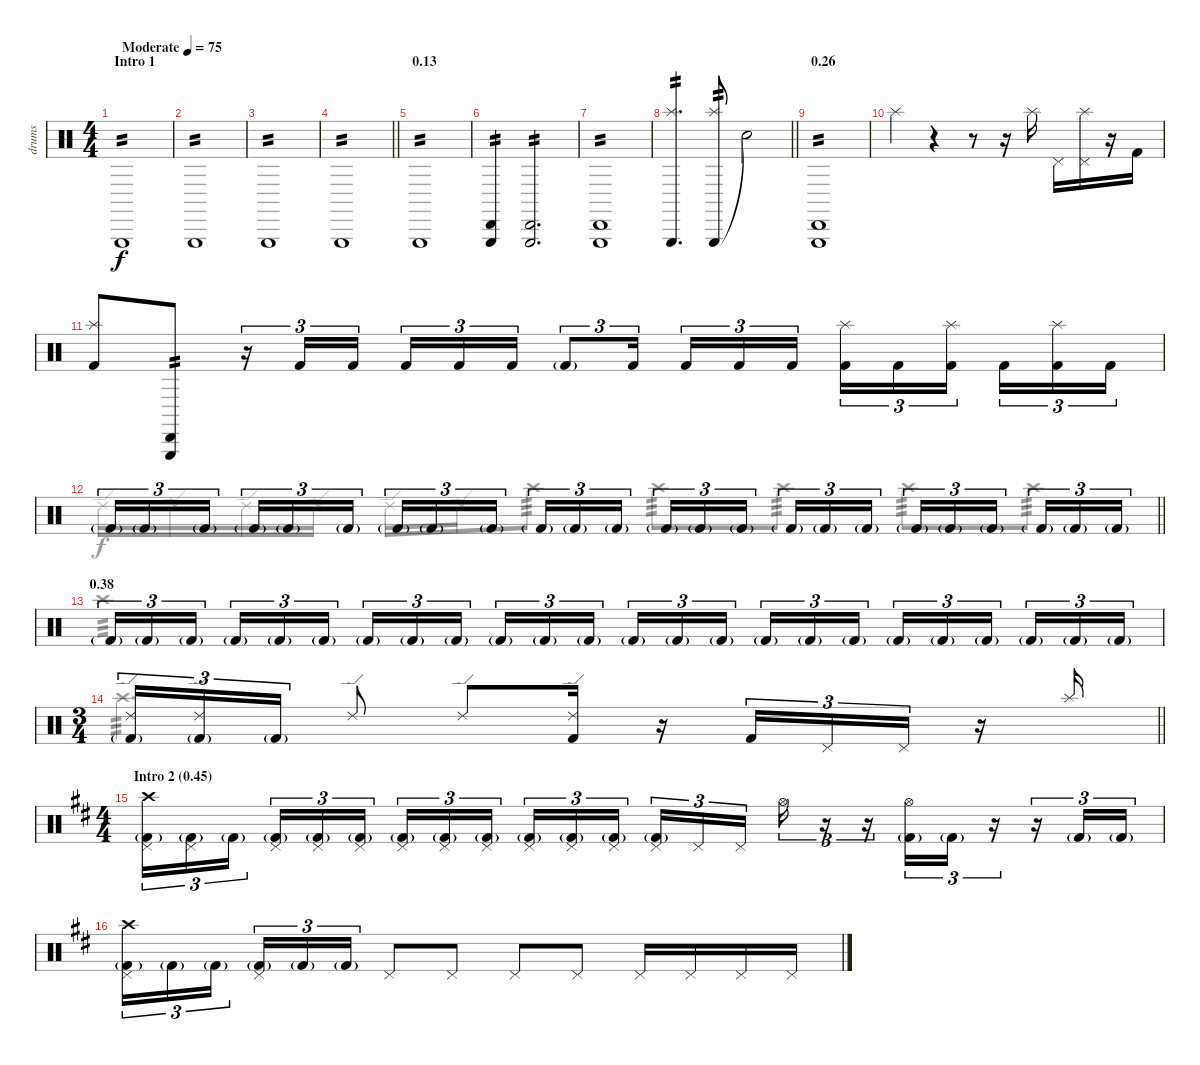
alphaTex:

\track ("drums" "drums") {instrument percussion}
\staff {score}
\articulation defaults
\voice
\ts (4 4)
\section ("" "Intro 1")
\tempo (75 "Moderate")
\clef neutral
\ks c "Triangle (hit)".1{tp 2 dy f}
|
"Triangle (hit)".1{tp 2} |
"Triangle (hit)".1{tp 2} |
\barLineRight lightlight "Triangle (hit)".1{tp 2}
|
\section ("" "0.13")
"Triangle (hit)".1{tp 2} |
("Cabasa (hit)" "Triangle (hit)").4{tp 2} ("Cabasa (hit)" "Triangle (hit)").2{d tp 2} |
("Cabasa (hit)" "Triangle (hit)").1{tp 2} |
\barLineRight lightlight
("Triangle (hit)" "Splash (hit)").4{d tp 2} ("Triangle (hit)" "Splash (hit)").8{tp 2} "Snare (hit)"{t}.2 |
\section ("" "0.26")
("Cabasa (hit)" "Triangle (hit)").1{tp 2} |
"Splash (hit)".4 r.4 r.8 r.16 "Splash (hit)".16 "Pedal Hi-Hat (hit)".16 ("Pedal Hi-Hat (hit)" "Splash (hit)").16 r.16 "Kick (hit) 2".16 |
("Splash (hit)" "Kick (hit) 2").8 ("Cabasa (hit)" "Triangle (hit)").8{tp 2} r.16{tu (3 2)} "Kick (hit) 2".16{tu (3 2)} "Kick (hit) 2".16{tu (3 2) beam splitsecondary} "Kick (hit) 2".16{tu (3 2)} "Kick (hit) 2".16{tu (3 2)} "Kick (hit) 2".16{tu (3 2)} "Kick (hit) 2"{g}.8{tu (3 2)} "Kick (hit) 2".16{tu (3 2) beam splitsecondary} "Kick (hit) 2".16{tu (3 2)} "Kick (hit) 2".16{tu (3 2)} "Kick (hit) 2".16{tu (3 2)} ("Splash (hit)" "Kick (hit) 2").16{tu (3 2)} "Kick (hit) 2".16{tu (3 2)} ("Splash (hit)" "Kick (hit) 2").16{tu (3 2) beam splitsecondary} "Kick (hit) 2".16{tu (3 2)} ("Splash (hit)" "Kick (hit) 2").16{tu (3 2)} "Kick (hit) 2".16{tu (3 2)} |
\barLineRight lightlight "Kick (hit) 2"{g}.16{tu (3 2)} "Kick (hit) 2"{g}.16{tu (3 2)} "Kick (hit) 2"{g}.16{tu (3 2) beam splitsecondary} "Kick (hit) 2"{g}.16{tu (3 2)} "Kick (hit) 2"{g}.16{tu (3 2)} "Kick (hit) 2"{g}.16{tu (3 2)} "Kick (hit) 2"{g}.16{tu (3 2)} "Kick (hit) 2"{g}.16{tu (3 2)} "Kick (hit) 2"{g}.16{tu (3 2) beam splitsecondary} "Kick (hit) 2"{g}.16{tu (3 2)} "Kick (hit) 2"{g}.16{tu (3 2)} "Kick (hit) 2"{g}.16{tu (3 2)} "Kick (hit) 2"{g}.16{tu (3 2)} "Kick (hit) 2"{g}.16{tu (3 2)} "Kick (hit) 2"{g}.16{tu (3 2) beam splitsecondary} "Kick (hit) 2"{g}.16{tu (3 2)} "Kick (hit) 2"{g}.16{tu (3 2)} "Kick (hit) 2"{g}.16{tu (3 2)} "Kick (hit) 2"{g}.16{tu (3 2)} "Kick (hit) 2"{g}.16{tu (3 2)} "Kick (hit) 2"{g}.16{tu (3 2) beam splitsecondary} "Kick (hit) 2"{g}.16{tu (3 2)} "Kick (hit) 2"{g}.16{tu (3 2)} "Kick (hit) 2"{g}.16{tu (3 2)}
|
\section ("" "0.38")
"Kick (hit) 2"{g}.16{tu (3 2)} "Kick (hit) 2"{g}.16{tu (3 2)} "Kick (hit) 2"{g}.16{tu (3 2) beam splitsecondary} "Kick (hit) 2"{g}.16{tu (3 2)} "Kick (hit) 2"{g}.16{tu (3 2)} "Kick (hit) 2"{g}.16{tu (3 2)} "Kick (hit) 2"{g}.16{tu (3 2)} "Kick (hit) 2"{g}.16{tu (3 2)} "Kick (hit) 2"{g}.16{tu (3 2) beam splitsecondary} "Kick (hit) 2"{g}.16{tu (3 2)} "Kick (hit) 2"{g}.16{tu (3 2)} "Kick (hit) 2"{g}.16{tu (3 2)} "Kick (hit) 2"{g}.16{tu (3 2)} "Kick (hit) 2"{g}.16{tu (3 2)} "Kick (hit) 2"{g}.16{tu (3 2) beam splitsecondary} "Kick (hit) 2"{g}.16{tu (3 2)} "Kick (hit) 2"{g}.16{tu (3 2)} "Kick (hit) 2"{g}.16{tu (3 2)} "Kick (hit) 2"{g}.16{tu (3 2)} "Kick (hit) 2"{g}.16{tu (3 2)} "Kick (hit) 2"{g}.16{tu (3 2) beam splitsecondary} "Kick (hit) 2"{g}.16{tu (3 2)} "Kick (hit) 2"{g}.16{tu (3 2)} "Kick (hit) 2"{g}.16{tu (3 2)} |
\ts (3 4)
\barLineRight lightlight
("Ride (edge) 2" "Kick (hit) 2"{g}).16{tu (3 2)} ("Ride (edge) 2" "Kick (hit) 2"{g}).16{tu (3 2)} "Kick (hit) 2"{g}.16{tu (3 2)} "Ride (edge) 2".8 "Ride (edge) 2".8 ("Ride (edge) 2" "Kick (hit) 2").16 r.16 "Kick (hit) 2".16{tu (3 2)} "Pedal Hi-Hat (hit)".16{tu (3 2)} "Pedal Hi-Hat (hit)".16{tu (3 2)} r.16 "Splash (hit)".16 |
\ts (4 4)
\section ("" "Intro 2 (0.45)")
\ks d
("Pedal Hi-Hat (hit)" "Crash high (hit)" "Kick (hit) 2"{g}).16{tu (3 2)} ("Pedal Hi-Hat (hit)" "Kick (hit) 2"{g}).16{tu (3 2)} "Kick (hit) 2"{g}.16{tu (3 2) beam splitsecondary} ("Pedal Hi-Hat (hit)" "Kick (hit) 2"{g}).16{tu (3 2)} ("Pedal Hi-Hat (hit)" "Kick (hit) 2"{g}).16{tu (3 2)} ("Pedal Hi-Hat (hit)" "Kick (hit) 2"{g}).16{tu (3 2)} ("Pedal Hi-Hat (hit)" "Kick (hit) 2"{g}).16{tu (3 2)} ("Pedal Hi-Hat (hit)" "Kick (hit) 2"{g}).16{tu (3 2)} ("Pedal Hi-Hat (hit)" "Kick (hit) 2"{g}).16{tu (3 2) beam splitsecondary} ("Pedal Hi-Hat (hit)" "Kick (hit) 2"{g}).16{tu (3 2)} ("Pedal Hi-Hat (hit)" "Kick (hit) 2"{g}).16{tu (3 2)} ("Pedal Hi-Hat (hit)" "Kick (hit) 2"{g}).16{tu (3 2)} ("Pedal Hi-Hat (hit)" "Kick (hit) 2"{g}).16{tu (3 2)} "Pedal Hi-Hat (hit)".16{tu (3 2)} "Pedal Hi-Hat (hit)".16{tu (3 2) beam splitsecondary} "Hi-Hat (open)".16{tu (3 2)} r.16{tu (3 2)} r.16{tu (3 2)} ("Hi-Hat (open)" "Kick (hit) 2"{g}).16{tu (3 2)} "Kick (hit) 2"{g}.16{tu (3 2)} r.16{tu (3 2)} r.16{tu (3 2)} "Kick (hit) 2"{g}.16{tu (3 2)} "Kick (hit) 2"{g}.16{tu (3 2)} |
("Pedal Hi-Hat (hit)" "Crash high (hit)" "Kick (hit) 2"{g}).16{tu (3 2)} "Kick (hit) 2"{g}.16{tu (3 2)} "Kick (hit) 2"{g}.16{tu (3 2) beam splitsecondary} ("Pedal Hi-Hat (hit)" "Kick (hit) 2"{g}).16{tu (3 2)} "Kick (hit) 2"{g}.16{tu (3 2)} "Kick (hit) 2"{g}.16{tu (3 2)} "Pedal Hi-Hat (hit)".8 "Pedal Hi-Hat (hit)".8 "Pedal Hi-Hat (hit)".8 "Pedal Hi-Hat (hit)".8 "Pedal Hi-Hat (hit)".16 "Pedal Hi-Hat (hit)".16 "Pedal Hi-Hat (hit)".16 "Pedal Hi-Hat (hit)".16
\voice
\clef neutral
\ottava regular
\simile none
\ks c
|
|
|
\barLineRight lightlight
|
|
|
|
\barLineRight lightlight
|
|
|
|
\barLineRight lightlight "Ride (edge) 2".16 "Ride (edge) 2".16 "Ride (edge) 2".16 "Ride (edge) 2".16 "Ride (edge) 2".16 "Ride (edge) 2".16 "Crash high (hit)".8{tp 3} "Crash high (hit)".8{tp 3} "Crash high (hit)".8{tp 3} "Crash high (hit)".8{tp 3} "Crash high (hit)".8{tp 3}
|
"Crash high (hit)".1{tp 3} |
\barLineRight lightlight "Crash high (hit)".2{d tp 3}
|
\ks d
|
